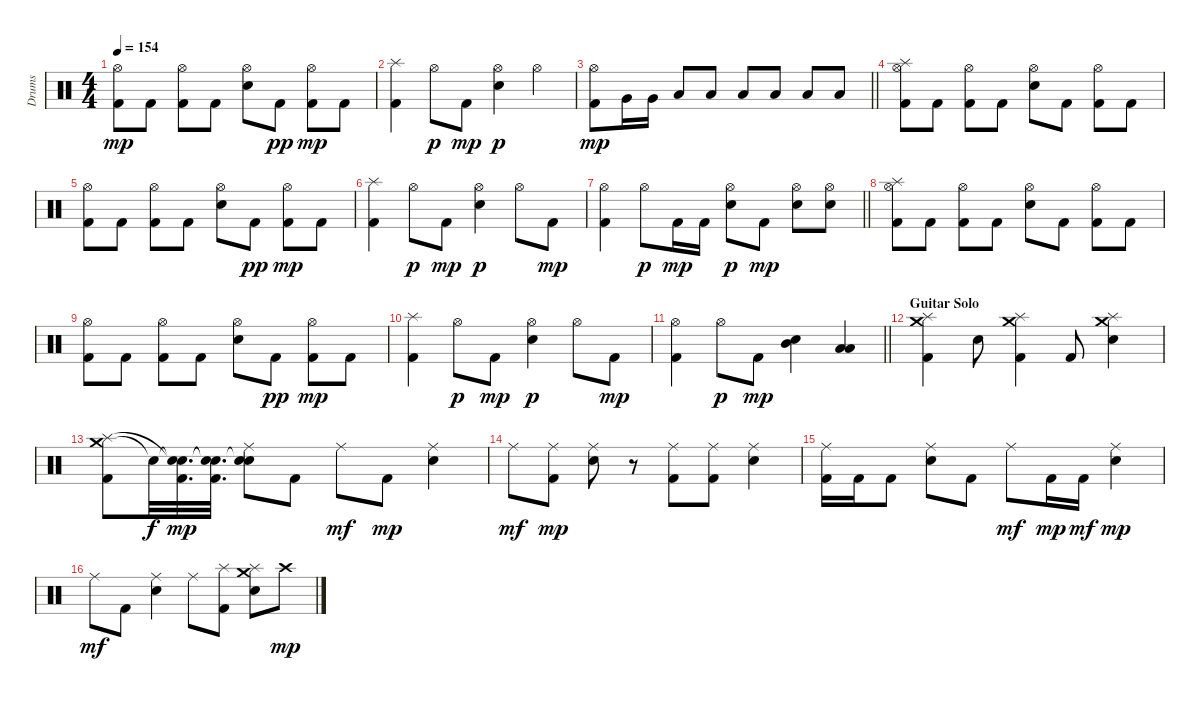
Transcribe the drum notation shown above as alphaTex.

\track ("Drums" "Drums") {instrument percussion}
\staff {score}
\articulation defaults
\ts (4 4)
\tempo 154
\clef neutral
\ks c
("Hi-Hat (open)" "Kick (hit) 2").8{dy mp} "Kick (hit) 2".8 ("Hi-Hat (open)" "Kick (hit) 2").8 "Kick (hit) 2".8 ("Hi-Hat (open)" "Electric Snare (hit)").8 "Kick (hit) 2".8{dy pp} ("Hi-Hat (open)" "Kick (hit) 2").8{dy mp} "Kick (hit) 2".8 |
("Splash (hit)" "Kick (hit) 2").4 "Hi-Hat (open)".8{dy p} "Kick (hit) 2".8{dy mp} ("Hi-Hat (open)" "Electric Snare (hit)").4{dy p} "Hi-Hat (open)".4 |
\barLineRight lightlight
("Hi-Hat (open)" "Kick (hit) 2").8{dy mp} "Very Low Tom (hit)".16 "Very Low Tom (hit)".16 "Low Tom (hit)".8 "Low Tom (hit)".8 "Low Tom (hit)".8 "Low Tom (hit)".8 "Low Floor Tom (hit)".8 "Low Floor Tom (hit)".8 |
("Splash (hit)" "Hi-Hat (open)" "Kick (hit) 2").8 "Kick (hit) 2".8 ("Hi-Hat (open)" "Kick (hit) 2").8 "Kick (hit) 2".8 ("Hi-Hat (open)" "Electric Snare (hit)").8 "Kick (hit) 2".8 ("Hi-Hat (open)" "Kick (hit) 2").8 "Kick (hit) 2".8 |
("Hi-Hat (open)" "Kick (hit) 2").8 "Kick (hit) 2".8 ("Hi-Hat (open)" "Kick (hit) 2").8 "Kick (hit) 2".8 ("Hi-Hat (open)" "Electric Snare (hit)").8 "Kick (hit) 2".8{dy pp} ("Hi-Hat (open)" "Kick (hit) 2").8{dy mp} "Kick (hit) 2".8 |
("Splash (hit)" "Kick (hit) 2").4 "Hi-Hat (open)".8{dy p} "Kick (hit) 2".8{dy mp} ("Hi-Hat (open)" "Electric Snare (hit)").4{dy p} "Hi-Hat (open)".8 "Kick (hit) 2".8{dy mp} |
\barLineRight lightlight
("Hi-Hat (open)" "Kick (hit) 2").4 "Hi-Hat (open)".8{dy p} "Kick (hit) 2".16{dy mp} "Kick (hit) 2".16 ("Hi-Hat (open)" "Electric Snare (hit)").8{dy p} "Kick (hit) 2".8{dy mp} ("Hi-Hat (open)" "Electric Snare (hit)").8 ("Hi-Hat (open)" "Electric Snare (hit)").8 |
("Splash (hit)" "Hi-Hat (open)" "Kick (hit) 2").8 "Kick (hit) 2".8 ("Hi-Hat (open)" "Kick (hit) 2").8 "Kick (hit) 2".8 ("Hi-Hat (open)" "Electric Snare (hit)").8 "Kick (hit) 2".8 ("Hi-Hat (open)" "Kick (hit) 2").8 "Kick (hit) 2".8 |
("Hi-Hat (open)" "Kick (hit) 2").8 "Kick (hit) 2".8 ("Hi-Hat (open)" "Kick (hit) 2").8 "Kick (hit) 2".8 ("Hi-Hat (open)" "Electric Snare (hit)").8 "Kick (hit) 2".8{dy pp} ("Hi-Hat (open)" "Kick (hit) 2").8{dy mp} "Kick (hit) 2".8 |
("Splash (hit)" "Kick (hit) 2").4 "Hi-Hat (open)".8{dy p} "Kick (hit) 2".8{dy mp} ("Hi-Hat (open)" "Electric Snare (hit)").4{dy p} "Hi-Hat (open)".8 "Kick (hit) 2".8{dy mp} |
\barLineRight lightlight
("Hi-Hat (open)" "Kick (hit) 2").4 "Hi-Hat (open)".8{dy p} "Kick (hit) 2".8{dy mp} ("Mid Tom (hit)" "Electric Snare (hit)").4 ("Low Tom (hit)" "Low Floor Tom (hit)").4 |
\section ("" "Guitar Solo")
("Crash medium (hit)" "Splash (hit)" "Kick (hit) 2").4 "Electric Snare (hit)".8 ("Crash medium (hit)" "Splash (hit)" "Kick (hit) 2").4 "Kick (hit) 2".8 ("Crash medium (hit)" "Splash (hit)" "Electric Snare (hit)").4 |
("Crash medium (hit)" "Splash (hit)" "Kick (hit) 2").8 "Snare (hit)"{t}.32{dy f} ("Snare (hit)"{t} "Snare (hit)"{t} "Kick (hit) 2").32{d dy mp} ("Snare (hit)"{t} "Snare (hit)"{t} "Kick (hit) 2").32{d} ("Snare (hit)"{t} "Ride (middle)" "Electric Snare (hit)").8 "Kick (hit) 2".8 "Ride (middle)".8{dy mf} "Kick (hit) 2".8{dy mp} ("Ride (middle)" "Electric Snare (hit)").4 |
"Ride (middle)".8{dy mf} ("Ride (middle)" "Kick (hit) 2").8{dy mp} ("Ride (middle)" "Electric Snare (hit)").8 r.8 ("Ride (middle)" "Kick (hit) 2").8 ("Ride (middle)" "Kick (hit) 2").8 ("Ride (middle)" "Electric Snare (hit)").4 |
("Ride (middle)" "Kick (hit) 2").16 "Kick (hit) 2".16 "Kick (hit) 2".8 ("Ride (middle)" "Electric Snare (hit)").8 "Kick (hit) 2".8 "Ride (middle)".8{dy mf} "Kick (hit) 2".16{dy mp} "Kick (hit) 2".16{dy mf} ("Ride (middle)" "Electric Snare (hit)").4{dy mp} |
"Ride (middle)".8{dy mf} "Kick (hit) 2".8 ("Ride (middle)" "Electric Snare (hit)").4 "Ride (middle)".8 ("Splash (hit)" "Kick (hit) 2").8 ("Crash medium (hit)" "Splash (hit)" "Electric Snare (hit)").8 "Crash high (hit)".8{dy mp}
